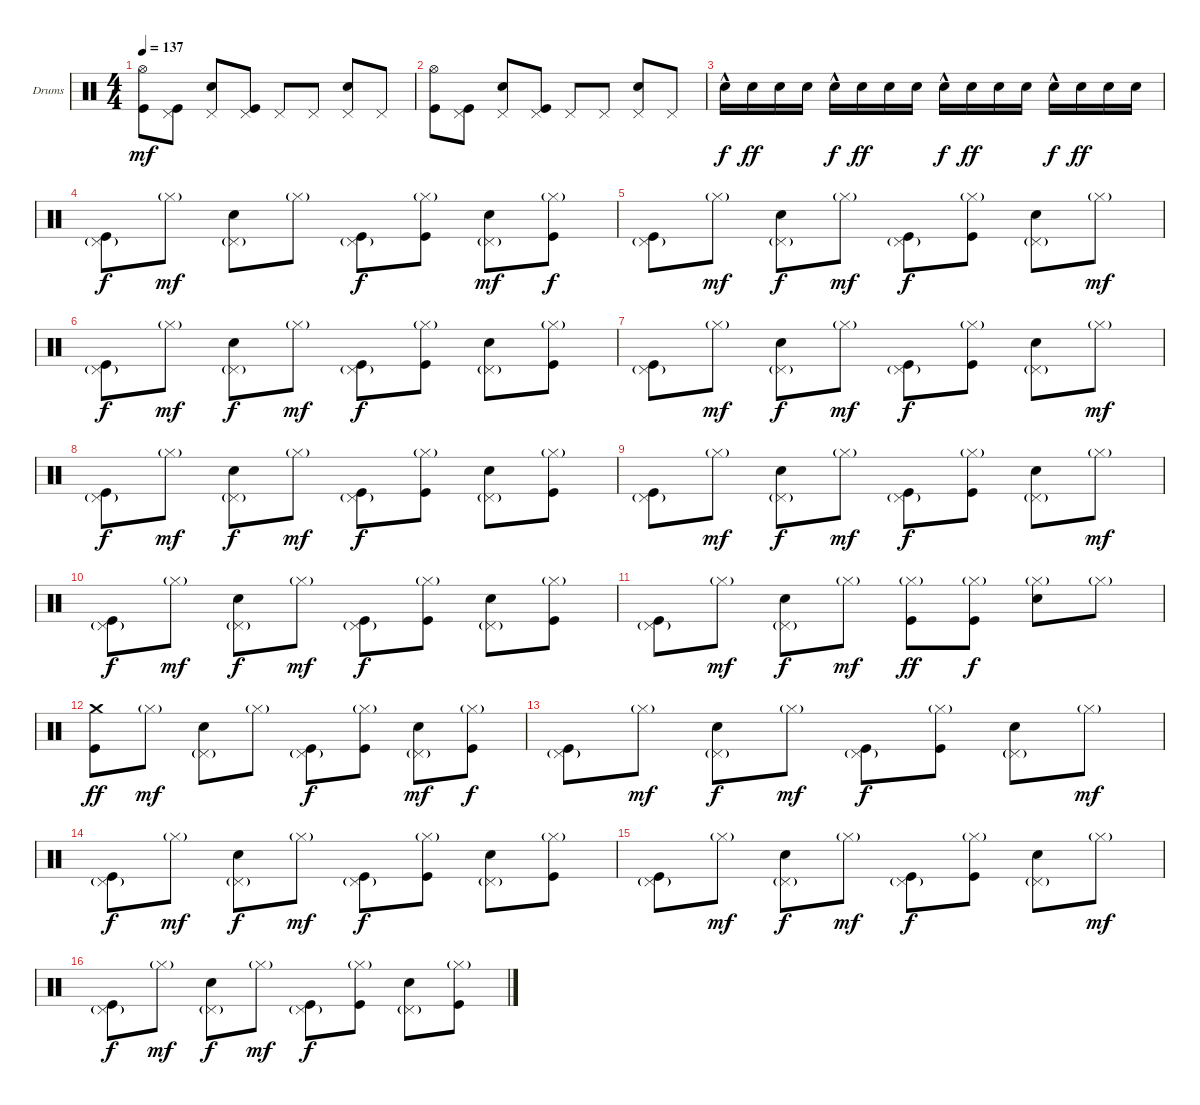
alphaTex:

\bracketExtendMode groupsimilarinstruments
\firstSystemTrackNameOrientation horizontal
\otherSystemsTrackNameOrientation horizontal
\track ("Drumkit (Christoph)" "Drums") {instrument percussion}
\staff {score}
\articulation defaults
\ts (4 4)
\tempo 137
\clef neutral
\ks c
("Hi-Hat (open)" "Kick (hit)").8{dy mf} ("Pedal Hi-Hat (hit)" "Kick (hit)").8 ("Pedal Hi-Hat (hit)" "Snare (hit) 2").8 ("Pedal Hi-Hat (hit)" "Kick (hit)").8 "Pedal Hi-Hat (hit)".8 "Pedal Hi-Hat (hit)".8 ("Pedal Hi-Hat (hit)" "Snare (hit) 2").8 "Pedal Hi-Hat (hit)".8 |
("Hi-Hat (open)" "Kick (hit)").8 ("Pedal Hi-Hat (hit)" "Kick (hit)").8 ("Pedal Hi-Hat (hit)" "Snare (hit) 2").8 ("Pedal Hi-Hat (hit)" "Kick (hit)").8 "Pedal Hi-Hat (hit)".8 "Pedal Hi-Hat (hit)".8 ("Pedal Hi-Hat (hit)" "Snare (hit) 2").8 "Pedal Hi-Hat (hit)".8 |
"Snare (hit) 2"{hac}.16{dy f} "Snare (hit) 2".16{dy ff} "Snare (hit) 2".16 "Snare (hit) 2".16 "Snare (hit) 2"{hac}.16{dy f} "Snare (hit) 2".16{dy ff} "Snare (hit) 2".16 "Snare (hit) 2".16 "Snare (hit) 2"{hac}.16{dy f} "Snare (hit) 2".16{dy ff} "Snare (hit) 2".16 "Snare (hit) 2".16 "Snare (hit) 2"{hac}.16{dy f} "Snare (hit) 2".16{dy ff} "Snare (hit) 2".16 "Snare (hit) 2".16 |
("Pedal Hi-Hat (hit)"{g} "Kick (hit)").8{dy f} "Hi-Hat (closed)"{g}.8{dy mf} ("Pedal Hi-Hat (hit)"{g} "Snare (hit) 2").8 "Hi-Hat (closed)"{g}.8 ("Pedal Hi-Hat (hit)"{g} "Kick (hit)").8{dy f} ("Hi-Hat (closed)"{g} "Kick (hit)").8 ("Pedal Hi-Hat (hit)"{g} "Snare (hit) 2").8{dy mf} ("Hi-Hat (closed)"{g} "Kick (hit)").8{dy f} |
("Pedal Hi-Hat (hit)"{g} "Kick (hit)").8 "Hi-Hat (closed)"{g}.8{dy mf} ("Pedal Hi-Hat (hit)"{g} "Snare (hit) 2").8{dy f} "Hi-Hat (closed)"{g}.8{dy mf} ("Pedal Hi-Hat (hit)"{g} "Kick (hit)").8{dy f} ("Hi-Hat (closed)"{g} "Kick (hit)").8 ("Pedal Hi-Hat (hit)"{g} "Snare (hit) 2").8 "Hi-Hat (closed)"{g}.8{dy mf} |
("Pedal Hi-Hat (hit)"{g} "Kick (hit)").8{dy f} "Hi-Hat (closed)"{g}.8{dy mf} ("Pedal Hi-Hat (hit)"{g} "Snare (hit) 2").8{dy f} "Hi-Hat (closed)"{g}.8{dy mf} ("Pedal Hi-Hat (hit)"{g} "Kick (hit)").8{dy f} ("Hi-Hat (closed)"{g} "Kick (hit)").8 ("Pedal Hi-Hat (hit)"{g} "Snare (hit) 2").8 ("Hi-Hat (closed)"{g} "Kick (hit)").8 |
("Pedal Hi-Hat (hit)"{g} "Kick (hit)").8 "Hi-Hat (closed)"{g}.8{dy mf} ("Pedal Hi-Hat (hit)"{g} "Snare (hit) 2").8{dy f} "Hi-Hat (closed)"{g}.8{dy mf} ("Pedal Hi-Hat (hit)"{g} "Kick (hit)").8{dy f} ("Hi-Hat (closed)"{g} "Kick (hit)").8 ("Pedal Hi-Hat (hit)"{g} "Snare (hit) 2").8 "Hi-Hat (closed)"{g}.8{dy mf} |
("Pedal Hi-Hat (hit)"{g} "Kick (hit)").8{dy f} "Hi-Hat (closed)"{g}.8{dy mf} ("Pedal Hi-Hat (hit)"{g} "Snare (hit) 2").8{dy f} "Hi-Hat (closed)"{g}.8{dy mf} ("Pedal Hi-Hat (hit)"{g} "Kick (hit)").8{dy f} ("Hi-Hat (closed)"{g} "Kick (hit)").8 ("Pedal Hi-Hat (hit)"{g} "Snare (hit) 2").8 ("Hi-Hat (closed)"{g} "Kick (hit)").8 |
("Pedal Hi-Hat (hit)"{g} "Kick (hit)").8 "Hi-Hat (closed)"{g}.8{dy mf} ("Pedal Hi-Hat (hit)"{g} "Snare (hit) 2").8{dy f} "Hi-Hat (closed)"{g}.8{dy mf} ("Pedal Hi-Hat (hit)"{g} "Kick (hit)").8{dy f} ("Hi-Hat (closed)"{g} "Kick (hit)").8 ("Pedal Hi-Hat (hit)"{g} "Snare (hit) 2").8 "Hi-Hat (closed)"{g}.8{dy mf} |
("Pedal Hi-Hat (hit)"{g} "Kick (hit)").8{dy f} "Hi-Hat (closed)"{g}.8{dy mf} ("Pedal Hi-Hat (hit)"{g} "Snare (hit) 2").8{dy f} "Hi-Hat (closed)"{g}.8{dy mf} ("Pedal Hi-Hat (hit)"{g} "Kick (hit)").8{dy f} ("Hi-Hat (closed)"{g} "Kick (hit)").8 ("Pedal Hi-Hat (hit)"{g} "Snare (hit) 2").8 ("Hi-Hat (closed)"{g} "Kick (hit)").8 |
("Pedal Hi-Hat (hit)"{g} "Kick (hit)").8 "Hi-Hat (closed)"{g}.8{dy mf} ("Pedal Hi-Hat (hit)"{g} "Snare (hit) 2").8{dy f} "Hi-Hat (closed)"{g}.8{dy mf} ("Hi-Hat (closed)"{g} "Kick (hit)").8{dy ff} ("Hi-Hat (closed)"{g} "Kick (hit)").8{dy f} ("Hi-Hat (closed)"{g} "Snare (hit) 2").8 "Hi-Hat (closed)"{g}.8 |
("Crash medium (hit)" "Kick (hit)").8{dy ff} "Hi-Hat (closed)"{g}.8{dy mf} ("Pedal Hi-Hat (hit)"{g} "Snare (hit) 2").8 "Hi-Hat (closed)"{g}.8 ("Pedal Hi-Hat (hit)"{g} "Kick (hit)").8{dy f} ("Hi-Hat (closed)"{g} "Kick (hit)").8 ("Pedal Hi-Hat (hit)"{g} "Snare (hit) 2").8{dy mf} ("Hi-Hat (closed)"{g} "Kick (hit)").8{dy f} |
("Pedal Hi-Hat (hit)"{g} "Kick (hit)").8 "Hi-Hat (closed)"{g}.8{dy mf} ("Pedal Hi-Hat (hit)"{g} "Snare (hit) 2").8{dy f} "Hi-Hat (closed)"{g}.8{dy mf} ("Pedal Hi-Hat (hit)"{g} "Kick (hit)").8{dy f} ("Hi-Hat (closed)"{g} "Kick (hit)").8 ("Pedal Hi-Hat (hit)"{g} "Snare (hit) 2").8 "Hi-Hat (closed)"{g}.8{dy mf} |
("Pedal Hi-Hat (hit)"{g} "Kick (hit)").8{dy f} "Hi-Hat (closed)"{g}.8{dy mf} ("Pedal Hi-Hat (hit)"{g} "Snare (hit) 2").8{dy f} "Hi-Hat (closed)"{g}.8{dy mf} ("Pedal Hi-Hat (hit)"{g} "Kick (hit)").8{dy f} ("Hi-Hat (closed)"{g} "Kick (hit)").8 ("Pedal Hi-Hat (hit)"{g} "Snare (hit) 2").8 ("Hi-Hat (closed)"{g} "Kick (hit)").8 |
("Pedal Hi-Hat (hit)"{g} "Kick (hit)").8 "Hi-Hat (closed)"{g}.8{dy mf} ("Pedal Hi-Hat (hit)"{g} "Snare (hit) 2").8{dy f} "Hi-Hat (closed)"{g}.8{dy mf} ("Pedal Hi-Hat (hit)"{g} "Kick (hit)").8{dy f} ("Hi-Hat (closed)"{g} "Kick (hit)").8 ("Pedal Hi-Hat (hit)"{g} "Snare (hit) 2").8 "Hi-Hat (closed)"{g}.8{dy mf} |
("Pedal Hi-Hat (hit)"{g} "Kick (hit)").8{dy f} "Hi-Hat (closed)"{g}.8{dy mf} ("Pedal Hi-Hat (hit)"{g} "Snare (hit) 2").8{dy f} "Hi-Hat (closed)"{g}.8{dy mf} ("Pedal Hi-Hat (hit)"{g} "Kick (hit)").8{dy f} ("Hi-Hat (closed)"{g} "Kick (hit)").8 ("Pedal Hi-Hat (hit)"{g} "Snare (hit) 2").8 ("Hi-Hat (closed)"{g} "Kick (hit)").8
